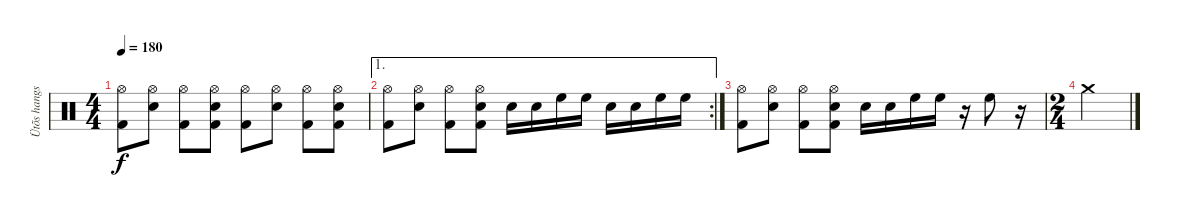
\track ("Ütõs hangszer" "Ütõs hangs") {instrument percussion}
\staff {score}
\articulation defaults
\ts (4 4)
\tempo 180
\clef neutral
\ks c
("Hi-Hat (open)" "Kick (hit) 2").8{dy f} ("Hi-Hat (open)" "Electric Snare (hit)").8 ("Hi-Hat (open)" "Kick (hit) 2").8 ("Hi-Hat (open)" "Electric Snare (hit)" "Kick (hit) 2").8 ("Hi-Hat (open)" "Kick (hit) 2").8 ("Hi-Hat (open)" "Electric Snare (hit)").8 ("Hi-Hat (open)" "Kick (hit) 2").8 ("Hi-Hat (open)" "Electric Snare (hit)" "Kick (hit) 2").8 |
\ae 1
\rc 2
("Hi-Hat (open)" "Kick (hit) 2").8 ("Hi-Hat (open)" "Electric Snare (hit)").8 ("Hi-Hat (open)" "Kick (hit) 2").8 ("Hi-Hat (open)" "Electric Snare (hit)" "Kick (hit) 2").8 "Electric Snare (hit)".16 "Electric Snare (hit)".16 "High Floor Tom (hit)".16 "High Floor Tom (hit)".16 "Electric Snare (hit)".16 "Electric Snare (hit)".16 "High Floor Tom (hit)".16 "High Floor Tom (hit)".16 |
("Hi-Hat (open)" "Kick (hit) 2").8 ("Hi-Hat (open)" "Electric Snare (hit)").8 ("Hi-Hat (open)" "Kick (hit) 2").8 ("Hi-Hat (open)" "Electric Snare (hit)" "Kick (hit) 2").8 "Electric Snare (hit)".16 "Electric Snare (hit)".16 "High Floor Tom (hit)".16 "High Floor Tom (hit)".16 r.16 "High Floor Tom (hit)".8 r.16 |
\ts (2 4)
"Crash medium (hit)".2
